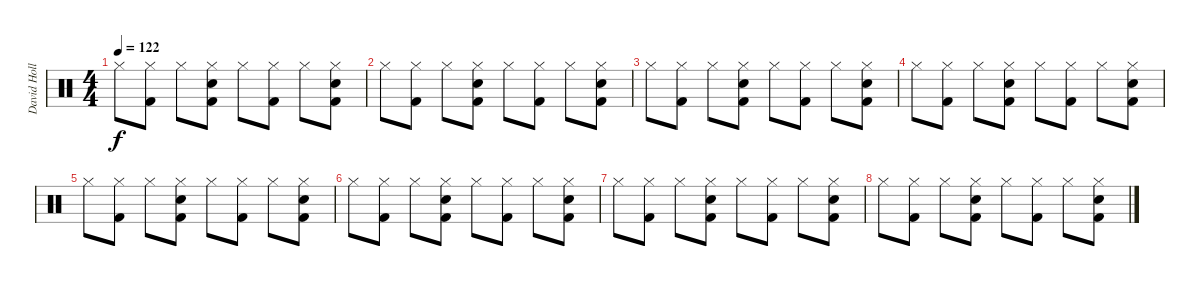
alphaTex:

\track ("David Holland" "David Holl") {instrument percussion}
\staff {score}
\articulation defaults
\ts (4 4)
\tempo 122
\clef neutral
\ks c "Hi-Hat (closed)".8{dy f}
("Kick (hit) 2" "Hi-Hat (closed)").8 "Hi-Hat (closed)".8 ("Electric Snare (hit)" "Kick (hit) 2" "Hi-Hat (closed)").8 "Hi-Hat (closed)".8 ("Kick (hit) 2" "Hi-Hat (closed)").8 "Hi-Hat (closed)".8 ("Electric Snare (hit)" "Kick (hit) 2" "Hi-Hat (closed)").8 |
"Hi-Hat (closed)".8 ("Kick (hit) 2" "Hi-Hat (closed)").8 "Hi-Hat (closed)".8 ("Electric Snare (hit)" "Kick (hit) 2" "Hi-Hat (closed)").8 "Hi-Hat (closed)".8 ("Kick (hit) 2" "Hi-Hat (closed)").8 "Hi-Hat (closed)".8 ("Electric Snare (hit)" "Kick (hit) 2" "Hi-Hat (closed)").8 |
"Hi-Hat (closed)".8 ("Kick (hit) 2" "Hi-Hat (closed)").8 "Hi-Hat (closed)".8 ("Electric Snare (hit)" "Kick (hit) 2" "Hi-Hat (closed)").8 "Hi-Hat (closed)".8 ("Kick (hit) 2" "Hi-Hat (closed)").8 "Hi-Hat (closed)".8 ("Electric Snare (hit)" "Kick (hit) 2" "Hi-Hat (closed)").8 |
"Hi-Hat (closed)".8 ("Kick (hit) 2" "Hi-Hat (closed)").8 "Hi-Hat (closed)".8 ("Electric Snare (hit)" "Kick (hit) 2" "Hi-Hat (closed)").8 "Hi-Hat (closed)".8 ("Kick (hit) 2" "Hi-Hat (closed)").8 "Hi-Hat (closed)".8 ("Electric Snare (hit)" "Kick (hit) 2" "Hi-Hat (closed)").8 |
"Hi-Hat (closed)".8 ("Kick (hit) 2" "Hi-Hat (closed)").8 "Hi-Hat (closed)".8 ("Electric Snare (hit)" "Kick (hit) 2" "Hi-Hat (closed)").8 "Hi-Hat (closed)".8 ("Kick (hit) 2" "Hi-Hat (closed)").8 "Hi-Hat (closed)".8 ("Electric Snare (hit)" "Kick (hit) 2" "Hi-Hat (closed)").8 |
"Hi-Hat (closed)".8 ("Kick (hit) 2" "Hi-Hat (closed)").8 "Hi-Hat (closed)".8 ("Electric Snare (hit)" "Kick (hit) 2" "Hi-Hat (closed)").8 "Hi-Hat (closed)".8 ("Kick (hit) 2" "Hi-Hat (closed)").8 "Hi-Hat (closed)".8 ("Electric Snare (hit)" "Kick (hit) 2" "Hi-Hat (closed)").8 |
"Hi-Hat (closed)".8 ("Kick (hit) 2" "Hi-Hat (closed)").8 "Hi-Hat (closed)".8 ("Electric Snare (hit)" "Kick (hit) 2" "Hi-Hat (closed)").8 "Hi-Hat (closed)".8 ("Kick (hit) 2" "Hi-Hat (closed)").8 "Hi-Hat (closed)".8 ("Electric Snare (hit)" "Kick (hit) 2" "Hi-Hat (closed)").8 |
"Hi-Hat (closed)".8 ("Kick (hit) 2" "Hi-Hat (closed)").8 "Hi-Hat (closed)".8 ("Electric Snare (hit)" "Kick (hit) 2" "Hi-Hat (closed)").8 "Hi-Hat (closed)".8 ("Kick (hit) 2" "Hi-Hat (closed)").8 "Hi-Hat (closed)".8 ("Electric Snare (hit)" "Kick (hit) 2" "Hi-Hat (closed)").8
